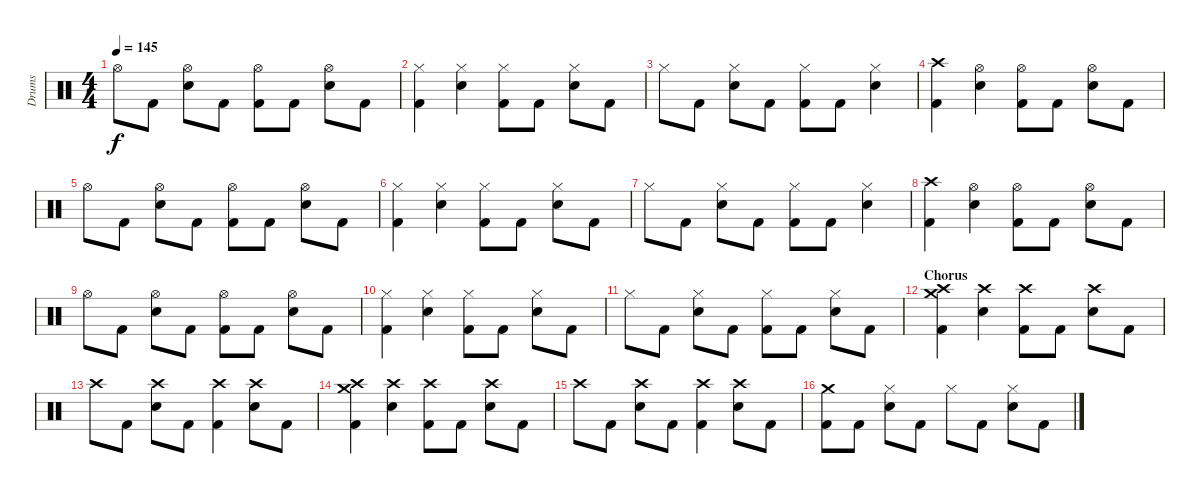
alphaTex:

\track ("Drums" "Drums") {instrument percussion}
\staff {score}
\articulation defaults
\ts (4 4)
\tempo 145
\clef neutral
\ks c "Hi-Hat (open)".8{dy f} "Kick (hit) 2".8
("Hi-Hat (open)" "Snare (hit) 2").8 "Kick (hit) 2".8 ("Hi-Hat (open)" "Kick (hit) 2").8 "Kick (hit) 2".8 ("Hi-Hat (open)" "Snare (hit) 2").8 "Kick (hit) 2".8 |
("Hi-Hat (closed)" "Kick (hit) 2").4 ("Hi-Hat (closed)" "Snare (hit) 2").4 ("Hi-Hat (closed)" "Kick (hit) 2").8 "Kick (hit) 2".8 ("Hi-Hat (closed)" "Snare (hit) 2").8 "Kick (hit) 2".8 |
"Hi-Hat (closed)".8 "Kick (hit) 2".8 ("Hi-Hat (closed)" "Snare (hit) 2").8 "Kick (hit) 2".8 ("Hi-Hat (closed)" "Kick (hit) 2").8 "Kick (hit) 2".8 ("Hi-Hat (closed)" "Snare (hit) 2").4 |
("Crash high (hit)" "Kick (hit) 2").4 ("Hi-Hat (open)" "Snare (hit) 2").4 ("Hi-Hat (open)" "Kick (hit) 2").8 "Kick (hit) 2".8 ("Hi-Hat (open)" "Snare (hit) 2").8 "Kick (hit) 2".8 |
"Hi-Hat (open)".8 "Kick (hit) 2".8 ("Hi-Hat (open)" "Snare (hit) 2").8 "Kick (hit) 2".8 ("Hi-Hat (open)" "Kick (hit) 2").8 "Kick (hit) 2".8 ("Hi-Hat (open)" "Snare (hit) 2").8 "Kick (hit) 2".8 |
("Hi-Hat (closed)" "Kick (hit) 2").4 ("Hi-Hat (closed)" "Snare (hit) 2").4 ("Hi-Hat (closed)" "Kick (hit) 2").8 "Kick (hit) 2".8 ("Hi-Hat (closed)" "Snare (hit) 2").8 "Kick (hit) 2".8 |
"Hi-Hat (closed)".8 "Kick (hit) 2".8 ("Hi-Hat (closed)" "Snare (hit) 2").8 "Kick (hit) 2".8 ("Hi-Hat (closed)" "Kick (hit) 2").8 "Kick (hit) 2".8 ("Hi-Hat (closed)" "Snare (hit) 2").4 |
("Crash high (hit)" "Kick (hit) 2").4 ("Hi-Hat (open)" "Snare (hit) 2").4 ("Hi-Hat (open)" "Kick (hit) 2").8 "Kick (hit) 2".8 ("Hi-Hat (open)" "Snare (hit) 2").8 "Kick (hit) 2".8 |
"Hi-Hat (open)".8 "Kick (hit) 2".8 ("Hi-Hat (open)" "Snare (hit) 2").8 "Kick (hit) 2".8 ("Hi-Hat (open)" "Kick (hit) 2").8 "Kick (hit) 2".8 ("Hi-Hat (open)" "Snare (hit) 2").8 "Kick (hit) 2".8 |
("Hi-Hat (closed)" "Kick (hit) 2").4 ("Hi-Hat (closed)" "Snare (hit) 2").4 ("Hi-Hat (closed)" "Kick (hit) 2").8 "Kick (hit) 2".8 ("Hi-Hat (closed)" "Snare (hit) 2").8 "Kick (hit) 2".8 |
"Hi-Hat (closed)".8 "Kick (hit) 2".8 ("Hi-Hat (closed)" "Snare (hit) 2").8 "Kick (hit) 2".8 ("Hi-Hat (closed)" "Kick (hit) 2").8 "Kick (hit) 2".8 ("Hi-Hat (closed)" "Snare (hit) 2").8 "Kick (hit) 2".8 |
\section ("" "Chorus")
("Crash high (hit)" "Crash medium (hit)" "Kick (hit) 2").4 ("Crash high (hit)" "Snare (hit) 2").4 ("Crash high (hit)" "Kick (hit) 2").8 "Kick (hit) 2".8 ("Crash high (hit)" "Snare (hit) 2").8 "Kick (hit) 2".8 |
"Crash high (hit)".8 "Kick (hit) 2".8 ("Crash high (hit)" "Snare (hit) 2").8 "Kick (hit) 2".8 ("Crash high (hit)" "Kick (hit) 2").4 ("Crash high (hit)" "Snare (hit) 2").8 "Kick (hit) 2".8 |
("Crash high (hit)" "Crash medium (hit)" "Kick (hit) 2").4 ("Crash high (hit)" "Snare (hit) 2").4 ("Crash high (hit)" "Kick (hit) 2").8 "Kick (hit) 2".8 ("Crash high (hit)" "Snare (hit) 2").8 "Kick (hit) 2".8 |
"Crash high (hit)".8 "Kick (hit) 2".8 ("Crash high (hit)" "Snare (hit) 2").8 "Kick (hit) 2".8 ("Crash high (hit)" "Kick (hit) 2").4 ("Crash high (hit)" "Snare (hit) 2").8 "Kick (hit) 2".8 |
("Crash medium (hit)" "Kick (hit) 2").8 "Kick (hit) 2".8 ("Hi-Hat (closed)" "Snare (hit) 2").8 "Kick (hit) 2".8 "Hi-Hat (closed)".8 "Kick (hit) 2".8 ("Hi-Hat (closed)" "Snare (hit) 2").8 "Kick (hit) 2".8
